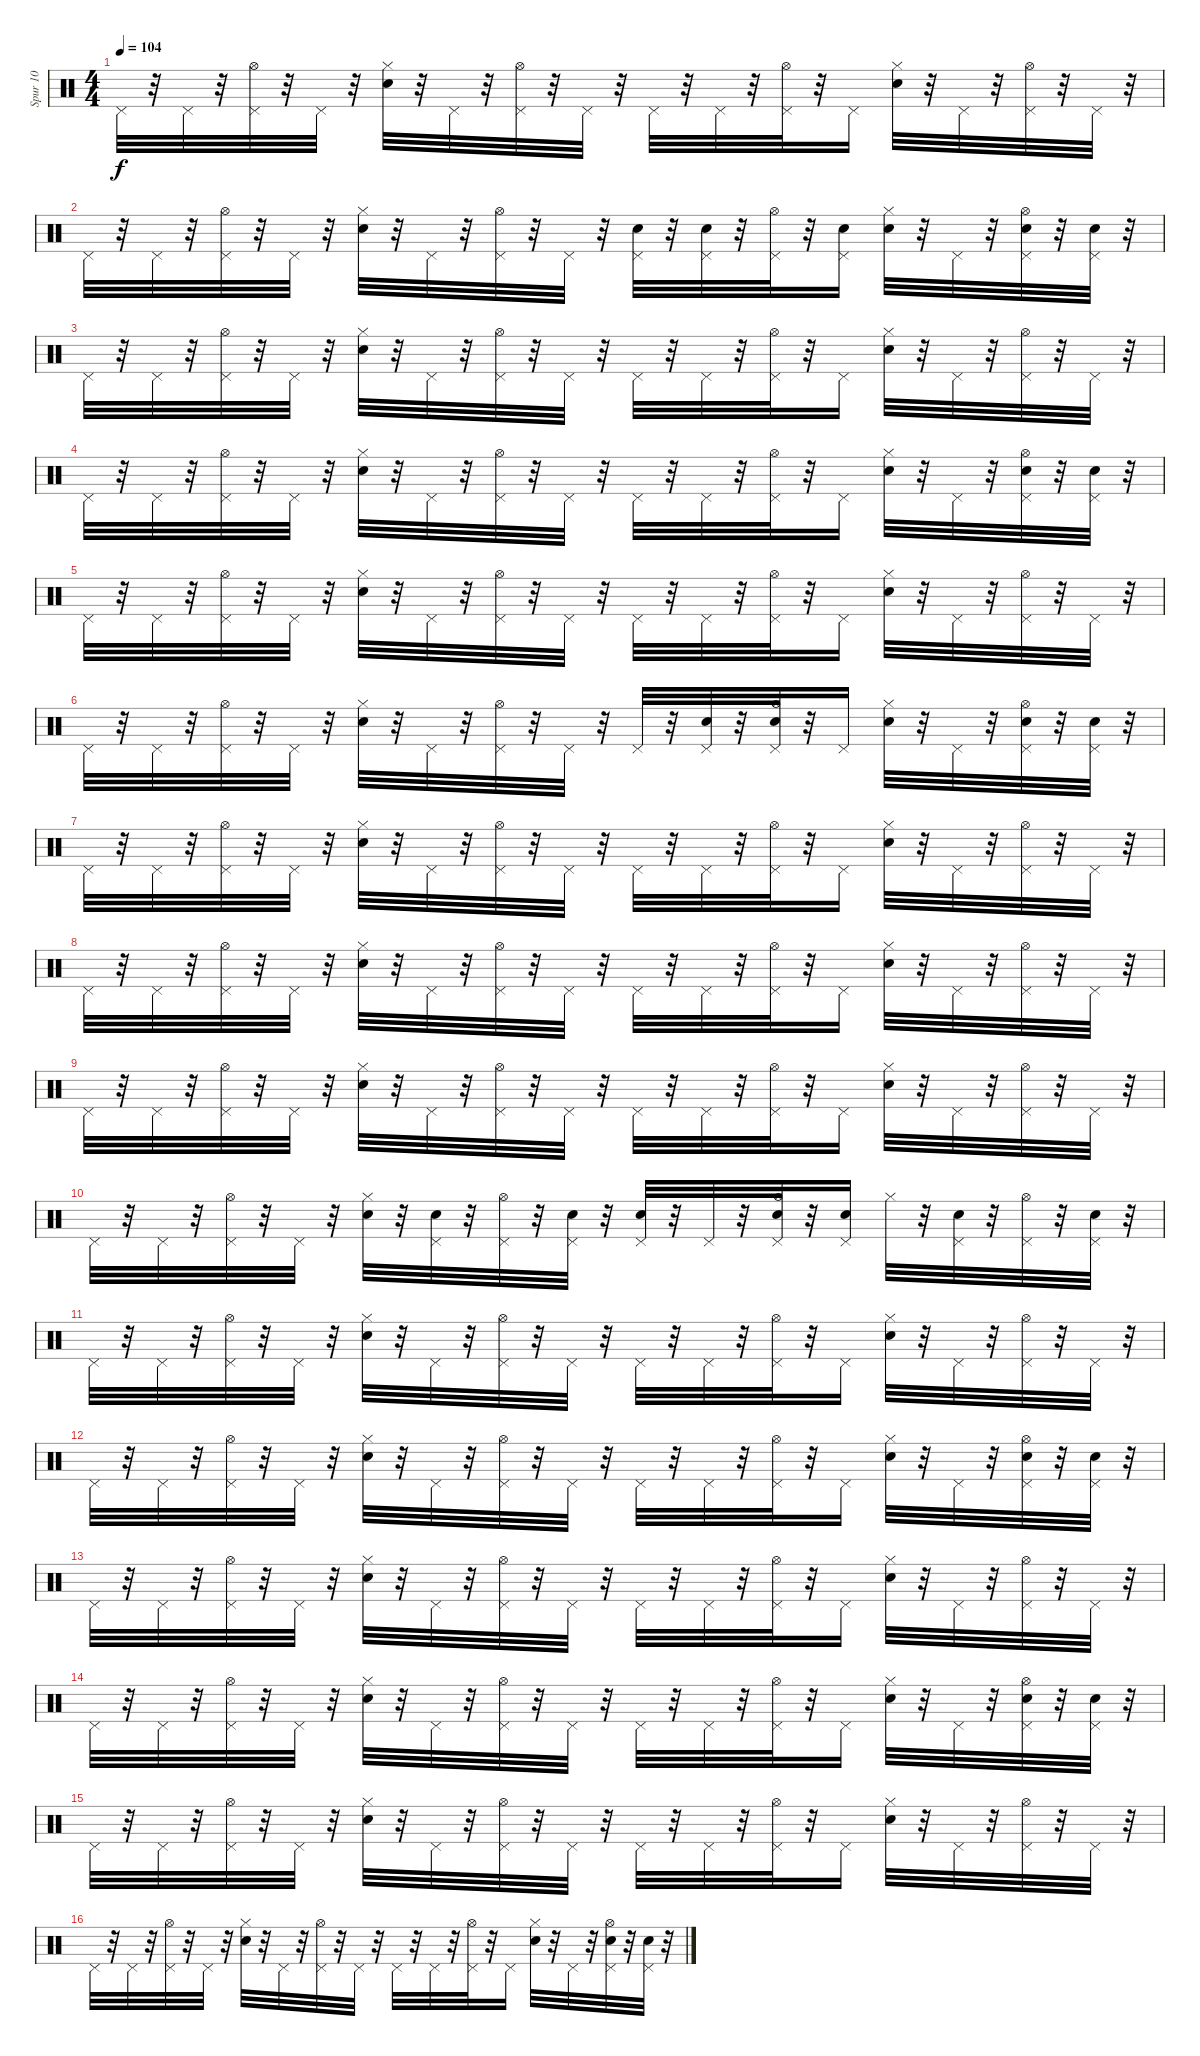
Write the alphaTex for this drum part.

\track ("Spur 10" "Spur 10") {instrument percussion}
\staff {score}
\articulation defaults
\ts (4 4)
\tempo 104
\clef neutral
\ks c "Pedal Hi-Hat (hit)".32{dy f}
r.32 "Pedal Hi-Hat (hit)".32 r.32 ("Pedal Hi-Hat (hit)" "Hi-Hat (open)").32 r.32 "Pedal Hi-Hat (hit)".32 r.32 ("Snare (hit) 2" "Hi-Hat (closed)").32 r.32 "Pedal Hi-Hat (hit)".32 r.32 ("Pedal Hi-Hat (hit)" "Hi-Hat (open)").32 r.32 "Pedal Hi-Hat (hit)".32 r.32 "Pedal Hi-Hat (hit)".32 r.32 "Pedal Hi-Hat (hit)".32 r.32 ("Pedal Hi-Hat (hit)" "Hi-Hat (open)").32 r.32 "Pedal Hi-Hat (hit)".16 ("Snare (hit) 2" "Hi-Hat (closed)").32 r.32 "Pedal Hi-Hat (hit)".32 r.32 ("Pedal Hi-Hat (hit)" "Hi-Hat (open)").32 r.32 "Pedal Hi-Hat (hit)".32 r.32 |
"Pedal Hi-Hat (hit)".32 r.32 "Pedal Hi-Hat (hit)".32 r.32 ("Pedal Hi-Hat (hit)" "Hi-Hat (open)").32 r.32 "Pedal Hi-Hat (hit)".32 r.32 ("Snare (hit) 2" "Hi-Hat (closed)").32 r.32 "Pedal Hi-Hat (hit)".32 r.32 ("Pedal Hi-Hat (hit)" "Hi-Hat (open)").32 r.32 "Pedal Hi-Hat (hit)".32 r.32 ("Snare (hit) 2" "Pedal Hi-Hat (hit)").32 r.32 ("Snare (hit) 2" "Pedal Hi-Hat (hit)").32 r.32 ("Pedal Hi-Hat (hit)" "Hi-Hat (open)").32 r.32 ("Snare (hit) 2" "Pedal Hi-Hat (hit)").16 ("Snare (hit) 2" "Hi-Hat (closed)").32 r.32 "Pedal Hi-Hat (hit)".32 r.32 ("Snare (hit) 2" "Pedal Hi-Hat (hit)" "Hi-Hat (open)").32 r.32 ("Snare (hit) 2" "Pedal Hi-Hat (hit)").32 r.32 |
"Pedal Hi-Hat (hit)".32 r.32 "Pedal Hi-Hat (hit)".32 r.32 ("Pedal Hi-Hat (hit)" "Hi-Hat (open)").32 r.32 "Pedal Hi-Hat (hit)".32 r.32 ("Snare (hit) 2" "Hi-Hat (closed)").32 r.32 "Pedal Hi-Hat (hit)".32 r.32 ("Pedal Hi-Hat (hit)" "Hi-Hat (open)").32 r.32 "Pedal Hi-Hat (hit)".32 r.32 "Pedal Hi-Hat (hit)".32 r.32 "Pedal Hi-Hat (hit)".32 r.32 ("Pedal Hi-Hat (hit)" "Hi-Hat (open)").32 r.32 "Pedal Hi-Hat (hit)".16 ("Snare (hit) 2" "Hi-Hat (closed)").32 r.32 "Pedal Hi-Hat (hit)".32 r.32 ("Pedal Hi-Hat (hit)" "Hi-Hat (open)").32 r.32 "Pedal Hi-Hat (hit)".32 r.32 |
"Pedal Hi-Hat (hit)".32 r.32 "Pedal Hi-Hat (hit)".32 r.32 ("Pedal Hi-Hat (hit)" "Hi-Hat (open)").32 r.32 "Pedal Hi-Hat (hit)".32 r.32 ("Snare (hit) 2" "Hi-Hat (closed)").32 r.32 "Pedal Hi-Hat (hit)".32 r.32 ("Pedal Hi-Hat (hit)" "Hi-Hat (open)").32 r.32 "Pedal Hi-Hat (hit)".32 r.32 "Pedal Hi-Hat (hit)".32 r.32 "Pedal Hi-Hat (hit)".32 r.32 ("Pedal Hi-Hat (hit)" "Hi-Hat (open)").32 r.32 "Pedal Hi-Hat (hit)".16 ("Snare (hit) 2" "Hi-Hat (closed)").32 r.32 "Pedal Hi-Hat (hit)".32 r.32 ("Snare (hit) 2" "Pedal Hi-Hat (hit)" "Hi-Hat (open)").32 r.32 ("Snare (hit) 2" "Pedal Hi-Hat (hit)").32 r.32 |
"Pedal Hi-Hat (hit)".32 r.32 "Pedal Hi-Hat (hit)".32 r.32 ("Pedal Hi-Hat (hit)" "Hi-Hat (open)").32 r.32 "Pedal Hi-Hat (hit)".32 r.32 ("Snare (hit) 2" "Hi-Hat (closed)").32 r.32 "Pedal Hi-Hat (hit)".32 r.32 ("Pedal Hi-Hat (hit)" "Hi-Hat (open)").32 r.32 "Pedal Hi-Hat (hit)".32 r.32 "Pedal Hi-Hat (hit)".32 r.32 "Pedal Hi-Hat (hit)".32 r.32 ("Pedal Hi-Hat (hit)" "Hi-Hat (open)").32 r.32 "Pedal Hi-Hat (hit)".16 ("Snare (hit) 2" "Hi-Hat (closed)").32 r.32 "Pedal Hi-Hat (hit)".32 r.32 ("Pedal Hi-Hat (hit)" "Hi-Hat (open)").32 r.32 "Pedal Hi-Hat (hit)".32 r.32 |
"Pedal Hi-Hat (hit)".32 r.32 "Pedal Hi-Hat (hit)".32 r.32 ("Pedal Hi-Hat (hit)" "Hi-Hat (open)").32 r.32 "Pedal Hi-Hat (hit)".32 r.32 ("Snare (hit) 2" "Hi-Hat (closed)").32 r.32 "Pedal Hi-Hat (hit)".32 r.32 ("Pedal Hi-Hat (hit)" "Hi-Hat (open)").32 r.32 "Pedal Hi-Hat (hit)".32 r.32 "Pedal Hi-Hat (hit)".32 r.32 ("Pedal Hi-Hat (hit)" "Snare (hit) 2").32 r.32 ("Pedal Hi-Hat (hit)" "Snare (hit) 2" "Hi-Hat (open)").32 r.32 "Pedal Hi-Hat (hit)".16 ("Snare (hit) 2" "Hi-Hat (closed)").32 r.32 "Pedal Hi-Hat (hit)".32 r.32 ("Snare (hit) 2" "Pedal Hi-Hat (hit)" "Hi-Hat (open)").32 r.32 ("Snare (hit) 2" "Pedal Hi-Hat (hit)").32 r.32 |
"Pedal Hi-Hat (hit)".32 r.32 "Pedal Hi-Hat (hit)".32 r.32 ("Pedal Hi-Hat (hit)" "Hi-Hat (open)").32 r.32 "Pedal Hi-Hat (hit)".32 r.32 ("Snare (hit) 2" "Hi-Hat (closed)").32 r.32 "Pedal Hi-Hat (hit)".32 r.32 ("Pedal Hi-Hat (hit)" "Hi-Hat (open)").32 r.32 "Pedal Hi-Hat (hit)".32 r.32 "Pedal Hi-Hat (hit)".32 r.32 "Pedal Hi-Hat (hit)".32 r.32 ("Pedal Hi-Hat (hit)" "Hi-Hat (open)").32 r.32 "Pedal Hi-Hat (hit)".16 ("Snare (hit) 2" "Hi-Hat (closed)").32 r.32 "Pedal Hi-Hat (hit)".32 r.32 ("Pedal Hi-Hat (hit)" "Hi-Hat (open)").32 r.32 "Pedal Hi-Hat (hit)".32 r.32 |
"Pedal Hi-Hat (hit)".32 r.32 "Pedal Hi-Hat (hit)".32 r.32 ("Pedal Hi-Hat (hit)" "Hi-Hat (open)").32 r.32 "Pedal Hi-Hat (hit)".32 r.32 ("Snare (hit) 2" "Hi-Hat (closed)").32 r.32 "Pedal Hi-Hat (hit)".32 r.32 ("Pedal Hi-Hat (hit)" "Hi-Hat (open)").32 r.32 "Pedal Hi-Hat (hit)".32 r.32 "Pedal Hi-Hat (hit)".32 r.32 "Pedal Hi-Hat (hit)".32 r.32 ("Pedal Hi-Hat (hit)" "Hi-Hat (open)").32 r.32 "Pedal Hi-Hat (hit)".16 ("Snare (hit) 2" "Hi-Hat (closed)").32 r.32 "Pedal Hi-Hat (hit)".32 r.32 ("Pedal Hi-Hat (hit)" "Hi-Hat (open)").32 r.32 "Pedal Hi-Hat (hit)".32 r.32 |
"Pedal Hi-Hat (hit)".32 r.32 "Pedal Hi-Hat (hit)".32 r.32 ("Pedal Hi-Hat (hit)" "Hi-Hat (open)").32 r.32 "Pedal Hi-Hat (hit)".32 r.32 ("Snare (hit) 2" "Hi-Hat (closed)").32 r.32 "Pedal Hi-Hat (hit)".32 r.32 ("Pedal Hi-Hat (hit)" "Hi-Hat (open)").32 r.32 "Pedal Hi-Hat (hit)".32 r.32 "Pedal Hi-Hat (hit)".32 r.32 "Pedal Hi-Hat (hit)".32 r.32 ("Pedal Hi-Hat (hit)" "Hi-Hat (open)").32 r.32 "Pedal Hi-Hat (hit)".16 ("Snare (hit) 2" "Hi-Hat (closed)").32 r.32 "Pedal Hi-Hat (hit)".32 r.32 ("Pedal Hi-Hat (hit)" "Hi-Hat (open)").32 r.32 "Pedal Hi-Hat (hit)".32 r.32 |
"Pedal Hi-Hat (hit)".32 r.32 "Pedal Hi-Hat (hit)".32 r.32 ("Pedal Hi-Hat (hit)" "Hi-Hat (open)").32 r.32 "Pedal Hi-Hat (hit)".32 r.32 ("Snare (hit) 2" "Hi-Hat (closed)").32 r.32 ("Pedal Hi-Hat (hit)" "Snare (hit) 2").32 r.32 ("Pedal Hi-Hat (hit)" "Hi-Hat (open)").32 r.32 ("Snare (hit) 2" "Pedal Hi-Hat (hit)").32 r.32 ("Snare (hit) 2" "Pedal Hi-Hat (hit)").32 r.32 "Pedal Hi-Hat (hit)".32 r.32 ("Snare (hit) 2" "Pedal Hi-Hat (hit)" "Hi-Hat (open)").32 r.32 ("Snare (hit) 2" "Pedal Hi-Hat (hit)").16 "Hi-Hat (closed)".32 r.32 ("Snare (hit) 2" "Pedal Hi-Hat (hit)").32 r.32 ("Pedal Hi-Hat (hit)" "Hi-Hat (open)").32 r.32 ("Snare (hit) 2" "Pedal Hi-Hat (hit)").32 r.32 |
"Pedal Hi-Hat (hit)".32 r.32 "Pedal Hi-Hat (hit)".32 r.32 ("Pedal Hi-Hat (hit)" "Hi-Hat (open)").32 r.32 "Pedal Hi-Hat (hit)".32 r.32 ("Snare (hit) 2" "Hi-Hat (closed)").32 r.32 "Pedal Hi-Hat (hit)".32 r.32 ("Pedal Hi-Hat (hit)" "Hi-Hat (open)").32 r.32 "Pedal Hi-Hat (hit)".32 r.32 "Pedal Hi-Hat (hit)".32 r.32 "Pedal Hi-Hat (hit)".32 r.32 ("Pedal Hi-Hat (hit)" "Hi-Hat (open)").32 r.32 "Pedal Hi-Hat (hit)".16 ("Snare (hit) 2" "Hi-Hat (closed)").32 r.32 "Pedal Hi-Hat (hit)".32 r.32 ("Pedal Hi-Hat (hit)" "Hi-Hat (open)").32 r.32 "Pedal Hi-Hat (hit)".32 r.32 |
"Pedal Hi-Hat (hit)".32 r.32 "Pedal Hi-Hat (hit)".32 r.32 ("Pedal Hi-Hat (hit)" "Hi-Hat (open)").32 r.32 "Pedal Hi-Hat (hit)".32 r.32 ("Snare (hit) 2" "Hi-Hat (closed)").32 r.32 "Pedal Hi-Hat (hit)".32 r.32 ("Pedal Hi-Hat (hit)" "Hi-Hat (open)").32 r.32 "Pedal Hi-Hat (hit)".32 r.32 "Pedal Hi-Hat (hit)".32 r.32 "Pedal Hi-Hat (hit)".32 r.32 ("Pedal Hi-Hat (hit)" "Hi-Hat (open)").32 r.32 "Pedal Hi-Hat (hit)".16 ("Snare (hit) 2" "Hi-Hat (closed)").32 r.32 "Pedal Hi-Hat (hit)".32 r.32 ("Snare (hit) 2" "Pedal Hi-Hat (hit)" "Hi-Hat (open)").32 r.32 ("Snare (hit) 2" "Pedal Hi-Hat (hit)").32 r.32 |
"Pedal Hi-Hat (hit)".32 r.32 "Pedal Hi-Hat (hit)".32 r.32 ("Pedal Hi-Hat (hit)" "Hi-Hat (open)").32 r.32 "Pedal Hi-Hat (hit)".32 r.32 ("Snare (hit) 2" "Hi-Hat (closed)").32 r.32 "Pedal Hi-Hat (hit)".32 r.32 ("Pedal Hi-Hat (hit)" "Hi-Hat (open)").32 r.32 "Pedal Hi-Hat (hit)".32 r.32 "Pedal Hi-Hat (hit)".32 r.32 "Pedal Hi-Hat (hit)".32 r.32 ("Pedal Hi-Hat (hit)" "Hi-Hat (open)").32 r.32 "Pedal Hi-Hat (hit)".16 ("Snare (hit) 2" "Hi-Hat (closed)").32 r.32 "Pedal Hi-Hat (hit)".32 r.32 ("Pedal Hi-Hat (hit)" "Hi-Hat (open)").32 r.32 "Pedal Hi-Hat (hit)".32 r.32 |
"Pedal Hi-Hat (hit)".32 r.32 "Pedal Hi-Hat (hit)".32 r.32 ("Pedal Hi-Hat (hit)" "Hi-Hat (open)").32 r.32 "Pedal Hi-Hat (hit)".32 r.32 ("Snare (hit) 2" "Hi-Hat (closed)").32 r.32 "Pedal Hi-Hat (hit)".32 r.32 ("Pedal Hi-Hat (hit)" "Hi-Hat (open)").32 r.32 "Pedal Hi-Hat (hit)".32 r.32 "Pedal Hi-Hat (hit)".32 r.32 "Pedal Hi-Hat (hit)".32 r.32 ("Pedal Hi-Hat (hit)" "Hi-Hat (open)").32 r.32 "Pedal Hi-Hat (hit)".16 ("Snare (hit) 2" "Hi-Hat (closed)").32 r.32 "Pedal Hi-Hat (hit)".32 r.32 ("Snare (hit) 2" "Pedal Hi-Hat (hit)" "Hi-Hat (open)").32 r.32 ("Snare (hit) 2" "Pedal Hi-Hat (hit)").32 r.32 |
"Pedal Hi-Hat (hit)".32 r.32 "Pedal Hi-Hat (hit)".32 r.32 ("Pedal Hi-Hat (hit)" "Hi-Hat (open)").32 r.32 "Pedal Hi-Hat (hit)".32 r.32 ("Snare (hit) 2" "Hi-Hat (closed)").32 r.32 "Pedal Hi-Hat (hit)".32 r.32 ("Pedal Hi-Hat (hit)" "Hi-Hat (open)").32 r.32 "Pedal Hi-Hat (hit)".32 r.32 "Pedal Hi-Hat (hit)".32 r.32 "Pedal Hi-Hat (hit)".32 r.32 ("Pedal Hi-Hat (hit)" "Hi-Hat (open)").32 r.32 "Pedal Hi-Hat (hit)".16 ("Snare (hit) 2" "Hi-Hat (closed)").32 r.32 "Pedal Hi-Hat (hit)".32 r.32 ("Pedal Hi-Hat (hit)" "Hi-Hat (open)").32 r.32 "Pedal Hi-Hat (hit)".32 r.32 |
"Pedal Hi-Hat (hit)".32 r.32 "Pedal Hi-Hat (hit)".32 r.32 ("Pedal Hi-Hat (hit)" "Hi-Hat (open)").32 r.32 "Pedal Hi-Hat (hit)".32 r.32 ("Snare (hit) 2" "Hi-Hat (closed)").32 r.32 "Pedal Hi-Hat (hit)".32 r.32 ("Pedal Hi-Hat (hit)" "Hi-Hat (open)").32 r.32 "Pedal Hi-Hat (hit)".32 r.32 "Pedal Hi-Hat (hit)".32 r.32 "Pedal Hi-Hat (hit)".32 r.32 ("Pedal Hi-Hat (hit)" "Hi-Hat (open)").32 r.32 "Pedal Hi-Hat (hit)".16 ("Snare (hit) 2" "Hi-Hat (closed)").32 r.32 "Pedal Hi-Hat (hit)".32 r.32 ("Snare (hit) 2" "Pedal Hi-Hat (hit)" "Hi-Hat (open)").32 r.32 ("Snare (hit) 2" "Pedal Hi-Hat (hit)").32 r.32
